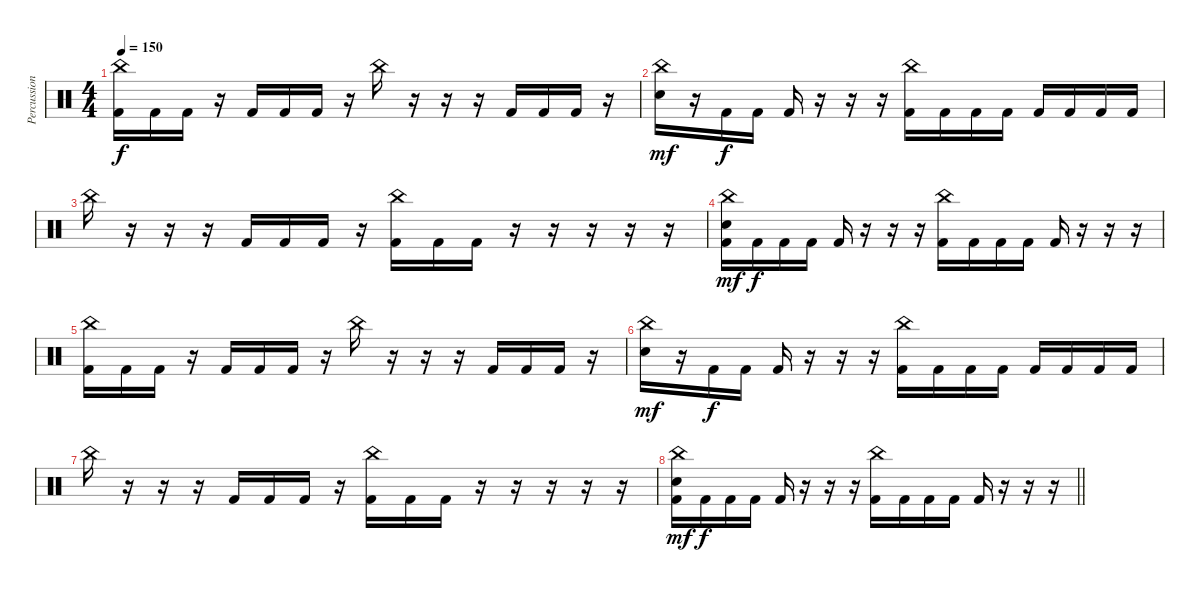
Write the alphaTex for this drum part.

\track ("Percussion" "Percussion") {instrument percussion}
\staff {score}
\articulation defaults
\ts (4 4)
\tempo 150
\clef neutral
\ks c
("China (hit)" "Kick (hit) 2").16{dy f} "Kick (hit) 2".16 "Kick (hit) 2".16 r.16 "Kick (hit) 2".16 "Kick (hit) 2".16 "Kick (hit) 2".16 r.16 "China (hit)".16 r.16 r.16 r.16 "Kick (hit) 2".16 "Kick (hit) 2".16 "Kick (hit) 2".16 r.16 |
("China (hit)" "Electric Snare (hit)").16{dy mf} r.16 "Kick (hit) 2".16{dy f} "Kick (hit) 2".16 "Kick (hit) 2".16 r.16 r.16 r.16 ("China (hit)" "Kick (hit) 2").16 "Kick (hit) 2".16 "Kick (hit) 2".16 "Kick (hit) 2".16 "Kick (hit) 2".16 "Kick (hit) 2".16 "Kick (hit) 2".16 "Kick (hit) 2".16 |
"China (hit)".16 r.16 r.16 r.16 "Kick (hit) 2".16 "Kick (hit) 2".16 "Kick (hit) 2".16 r.16 ("China (hit)" "Kick (hit) 2").16 "Kick (hit) 2".16 "Kick (hit) 2".16 r.16 r.16 r.16 r.16 r.16 |
("China (hit)" "Electric Snare (hit)" "Kick (hit) 2").16{dy mf} "Kick (hit) 2".16{dy f} "Kick (hit) 2".16 "Kick (hit) 2".16 "Kick (hit) 2".16 r.16 r.16 r.16 ("China (hit)" "Kick (hit) 2").16 "Kick (hit) 2".16 "Kick (hit) 2".16 "Kick (hit) 2".16 "Kick (hit) 2".16 r.16 r.16 r.16 |
("China (hit)" "Kick (hit) 2").16 "Kick (hit) 2".16 "Kick (hit) 2".16 r.16 "Kick (hit) 2".16 "Kick (hit) 2".16 "Kick (hit) 2".16 r.16 "China (hit)".16 r.16 r.16 r.16 "Kick (hit) 2".16 "Kick (hit) 2".16 "Kick (hit) 2".16 r.16 |
("China (hit)" "Electric Snare (hit)").16{dy mf} r.16 "Kick (hit) 2".16{dy f} "Kick (hit) 2".16 "Kick (hit) 2".16 r.16 r.16 r.16 ("China (hit)" "Kick (hit) 2").16 "Kick (hit) 2".16 "Kick (hit) 2".16 "Kick (hit) 2".16 "Kick (hit) 2".16 "Kick (hit) 2".16 "Kick (hit) 2".16 "Kick (hit) 2".16 |
"China (hit)".16 r.16 r.16 r.16 "Kick (hit) 2".16 "Kick (hit) 2".16 "Kick (hit) 2".16 r.16 ("China (hit)" "Kick (hit) 2").16 "Kick (hit) 2".16 "Kick (hit) 2".16 r.16 r.16 r.16 r.16 r.16 |
\barLineRight lightlight
("China (hit)" "Electric Snare (hit)" "Kick (hit) 2").16{dy mf} "Kick (hit) 2".16{dy f} "Kick (hit) 2".16 "Kick (hit) 2".16 "Kick (hit) 2".16 r.16 r.16 r.16 ("China (hit)" "Kick (hit) 2").16 "Kick (hit) 2".16 "Kick (hit) 2".16 "Kick (hit) 2".16 "Kick (hit) 2".16 r.16 r.16 r.16
